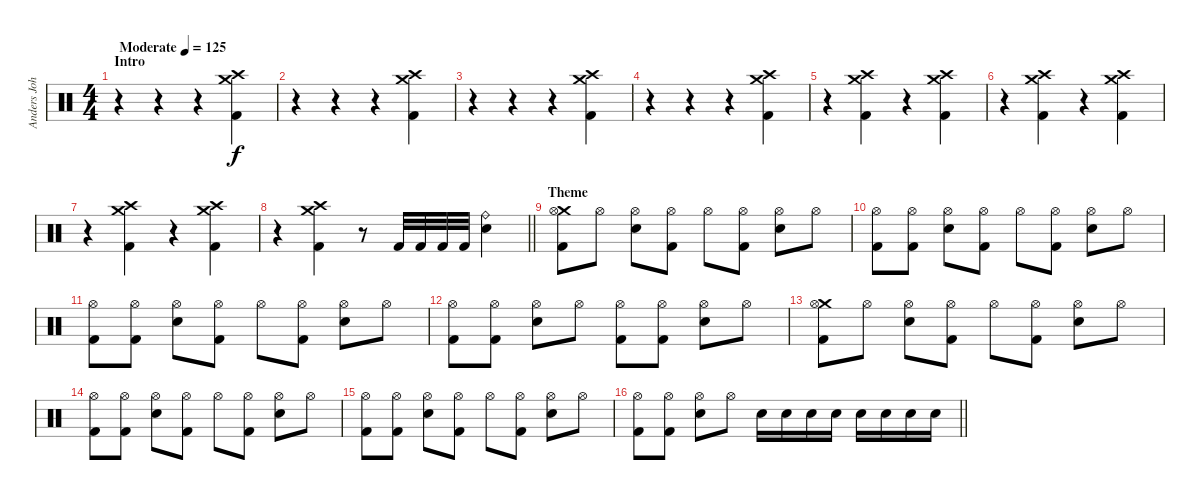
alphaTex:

\track ("Anders Johansson" "Anders Joh") {instrument percussion}
\staff {score}
\articulation defaults
\ts (4 4)
\section ("" "Intro")
\tempo (125 "Moderate")
\clef neutral
\ks c
r.4{dy f} r.4 r.4 ("Crash medium (hit)" "Crash high (hit)" "Kick (hit) 2").4 |
r.4 r.4 r.4 ("Crash medium (hit)" "Crash high (hit)" "Kick (hit) 2").4 |
r.4 r.4 r.4 ("Crash medium (hit)" "Crash high (hit)" "Kick (hit) 2").4 |
r.4 r.4 r.4 ("Crash medium (hit)" "Crash high (hit)" "Kick (hit) 2").4 |
r.4 ("Crash medium (hit)" "Crash high (hit)" "Kick (hit) 2").4 r.4 ("Crash medium (hit)" "Crash high (hit)" "Kick (hit) 2").4 |
r.4 ("Crash medium (hit)" "Crash high (hit)" "Kick (hit) 2").4 r.4 ("Crash medium (hit)" "Crash high (hit)" "Kick (hit) 2").4 |
r.4 ("Crash medium (hit)" "Crash high (hit)" "Kick (hit) 2").4 r.4 ("Crash medium (hit)" "Crash high (hit)" "Kick (hit) 2").4 |
\barLineRight lightlight
r.4 ("Crash medium (hit)" "Crash high (hit)" "Kick (hit) 2").4 r.8 "Kick (hit) 2".32 "Kick (hit) 2".32 "Kick (hit) 2".32 "Kick (hit) 2".32 ("Ride (bell)" "Snare (hit) 2").4 |
\section ("" "Theme")
("Crash medium (hit)" "Hi-Hat (open)" "Kick (hit) 2").8 "Hi-Hat (open)".8 ("Hi-Hat (open)" "Snare (hit) 2").8 ("Hi-Hat (open)" "Kick (hit) 2").8 "Hi-Hat (open)".8 ("Hi-Hat (open)" "Kick (hit) 2").8 ("Hi-Hat (open)" "Snare (hit) 2").8 "Hi-Hat (open)".8 |
("Hi-Hat (open)" "Kick (hit) 2").8 ("Hi-Hat (open)" "Kick (hit) 2").8 ("Hi-Hat (open)" "Snare (hit) 2").8 ("Hi-Hat (open)" "Kick (hit) 2").8 "Hi-Hat (open)".8 ("Hi-Hat (open)" "Kick (hit) 2").8 ("Hi-Hat (open)" "Snare (hit) 2").8 "Hi-Hat (open)".8 |
("Hi-Hat (open)" "Kick (hit) 2").8 ("Hi-Hat (open)" "Kick (hit) 2").8 ("Hi-Hat (open)" "Snare (hit) 2").8 ("Hi-Hat (open)" "Kick (hit) 2").8 "Hi-Hat (open)".8 ("Hi-Hat (open)" "Kick (hit) 2").8 ("Hi-Hat (open)" "Snare (hit) 2").8 "Hi-Hat (open)".8 |
("Hi-Hat (open)" "Kick (hit) 2").8 ("Hi-Hat (open)" "Kick (hit) 2").8 ("Hi-Hat (open)" "Snare (hit) 2").8 "Hi-Hat (open)".8 ("Hi-Hat (open)" "Kick (hit) 2").8 ("Hi-Hat (open)" "Kick (hit) 2").8 ("Hi-Hat (open)" "Snare (hit) 2").8 "Hi-Hat (open)".8 |
("Crash medium (hit)" "Hi-Hat (open)" "Kick (hit) 2").8 "Hi-Hat (open)".8 ("Hi-Hat (open)" "Snare (hit) 2").8 ("Hi-Hat (open)" "Kick (hit) 2").8 "Hi-Hat (open)".8 ("Hi-Hat (open)" "Kick (hit) 2").8 ("Hi-Hat (open)" "Snare (hit) 2").8 "Hi-Hat (open)".8 |
("Hi-Hat (open)" "Kick (hit) 2").8 ("Hi-Hat (open)" "Kick (hit) 2").8 ("Hi-Hat (open)" "Snare (hit) 2").8 ("Hi-Hat (open)" "Kick (hit) 2").8 "Hi-Hat (open)".8 ("Hi-Hat (open)" "Kick (hit) 2").8 ("Hi-Hat (open)" "Snare (hit) 2").8 "Hi-Hat (open)".8 |
("Hi-Hat (open)" "Kick (hit) 2").8 ("Hi-Hat (open)" "Kick (hit) 2").8 ("Hi-Hat (open)" "Snare (hit) 2").8 ("Hi-Hat (open)" "Kick (hit) 2").8 "Hi-Hat (open)".8 ("Hi-Hat (open)" "Kick (hit) 2").8 ("Hi-Hat (open)" "Snare (hit) 2").8 "Hi-Hat (open)".8 |
\barLineRight lightlight
("Hi-Hat (open)" "Kick (hit) 2").8 ("Hi-Hat (open)" "Kick (hit) 2").8 ("Hi-Hat (open)" "Snare (hit) 2").8 "Hi-Hat (open)".8 "Electric Snare (hit)".16 "Electric Snare (hit)".16 "Electric Snare (hit)".16 "Electric Snare (hit)".16 "Electric Snare (hit)".16 "Electric Snare (hit)".16 "Electric Snare (hit)".16 "Electric Snare (hit)".16
